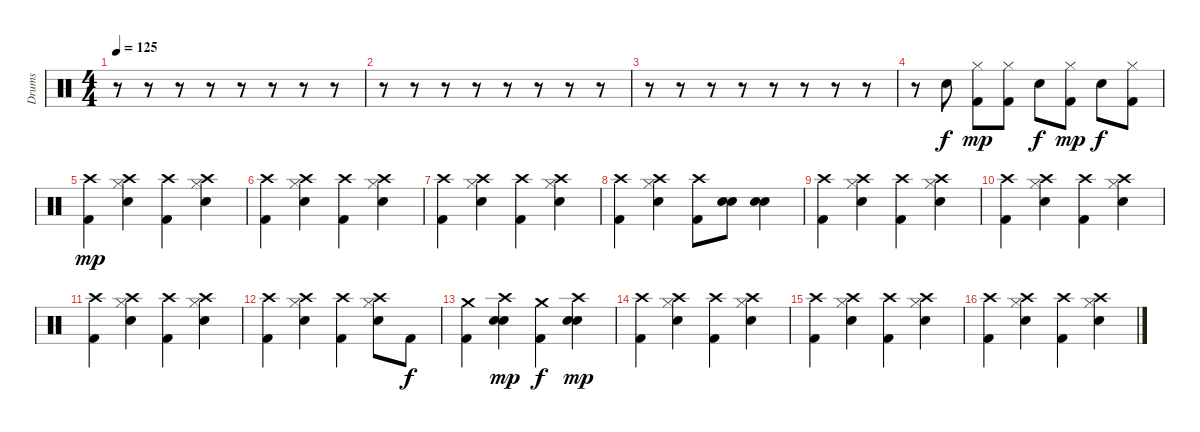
\track ("Drums" "Drums") {instrument percussion}
\staff {score}
\articulation defaults
\ts (4 4)
\tempo 125
\clef neutral
\ks c
r.8{dy f} r.8 r.8 r.8 r.8 r.8 r.8 r.8 |
r.8 r.8 r.8 r.8 r.8 r.8 r.8 r.8 |
r.8 r.8 r.8 r.8 r.8 r.8 r.8 r.8 |
r.8 "Snare (hit) 2".8 ("Hi-Hat (closed)" "Kick (hit) 2").8{dy mp} ("Hi-Hat (closed)" "Kick (hit) 2").8 "Snare (hit) 2".8{dy f} ("Hi-Hat (closed)" "Kick (hit) 2").8{dy mp} "Snare (hit) 2".8{dy f} ("Hi-Hat (closed)" "Kick (hit) 2").8 |
("Crash high (hit)" "Kick (hit) 2").4{dy mp} ("Crash high (hit)" "Snare (hit) 2" "Hi-Hat (closed)").4 ("Crash high (hit)" "Kick (hit) 2").4 ("Crash high (hit)" "Snare (hit) 2" "Hi-Hat (closed)").4 |
("Crash high (hit)" "Kick (hit) 2").4 ("Crash high (hit)" "Snare (hit) 2" "Hi-Hat (closed)").4 ("Crash high (hit)" "Kick (hit) 2").4 ("Crash high (hit)" "Snare (hit) 2" "Hi-Hat (closed)").4 |
("Crash high (hit)" "Kick (hit) 2").4 ("Crash high (hit)" "Snare (hit) 2" "Hi-Hat (closed)").4 ("Crash high (hit)" "Kick (hit) 2").4 ("Crash high (hit)" "Snare (hit) 2" "Hi-Hat (closed)").4 |
("Crash high (hit)" "Kick (hit) 2").4 ("Crash high (hit)" "Snare (hit) 2" "Hi-Hat (closed)").4 ("Crash high (hit)" "Kick (hit) 2").8 ("Snare (hit) 2" "Electric Snare (hit)").8 ("Snare (hit) 2" "Electric Snare (hit)").4 |
("Crash high (hit)" "Kick (hit) 2").4 ("Crash high (hit)" "Snare (hit) 2" "Hi-Hat (closed)").4 ("Crash high (hit)" "Kick (hit) 2").4 ("Crash high (hit)" "Snare (hit) 2" "Hi-Hat (closed)").4 |
("Crash high (hit)" "Kick (hit) 2").4 ("Crash high (hit)" "Snare (hit) 2" "Hi-Hat (closed)").4 ("Crash high (hit)" "Kick (hit) 2").4 ("Crash high (hit)" "Snare (hit) 2" "Hi-Hat (closed)").4 |
("Crash high (hit)" "Kick (hit) 2").4 ("Crash high (hit)" "Snare (hit) 2" "Hi-Hat (closed)").4 ("Crash high (hit)" "Kick (hit) 2").4 ("Crash high (hit)" "Snare (hit) 2" "Hi-Hat (closed)").4 |
("Crash high (hit)" "Kick (hit) 2").4 ("Crash high (hit)" "Snare (hit) 2" "Hi-Hat (closed)").4 ("Crash high (hit)" "Kick (hit) 2").4 ("Crash high (hit)" "Snare (hit) 2" "Hi-Hat (closed)").8 "Kick (hit) 2".8{dy f} |
("Crash medium (hit)" "Kick (hit) 2").4 ("Crash high (hit)" "Snare (hit) 2" "Electric Snare (hit)").4{dy mp} ("Crash medium (hit)" "Kick (hit) 2").4{dy f} ("Crash high (hit)" "Snare (hit) 2" "Electric Snare (hit)").4{dy mp} |
("Crash high (hit)" "Kick (hit) 2").4 ("Crash high (hit)" "Snare (hit) 2" "Hi-Hat (closed)").4 ("Crash high (hit)" "Kick (hit) 2").4 ("Crash high (hit)" "Snare (hit) 2" "Hi-Hat (closed)").4 |
("Crash high (hit)" "Kick (hit) 2").4 ("Crash high (hit)" "Snare (hit) 2" "Hi-Hat (closed)").4 ("Crash high (hit)" "Kick (hit) 2").4 ("Crash high (hit)" "Snare (hit) 2" "Hi-Hat (closed)").4 |
("Crash high (hit)" "Kick (hit) 2").4 ("Crash high (hit)" "Snare (hit) 2" "Hi-Hat (closed)").4 ("Crash high (hit)" "Kick (hit) 2").4 ("Crash high (hit)" "Snare (hit) 2" "Hi-Hat (closed)").4
